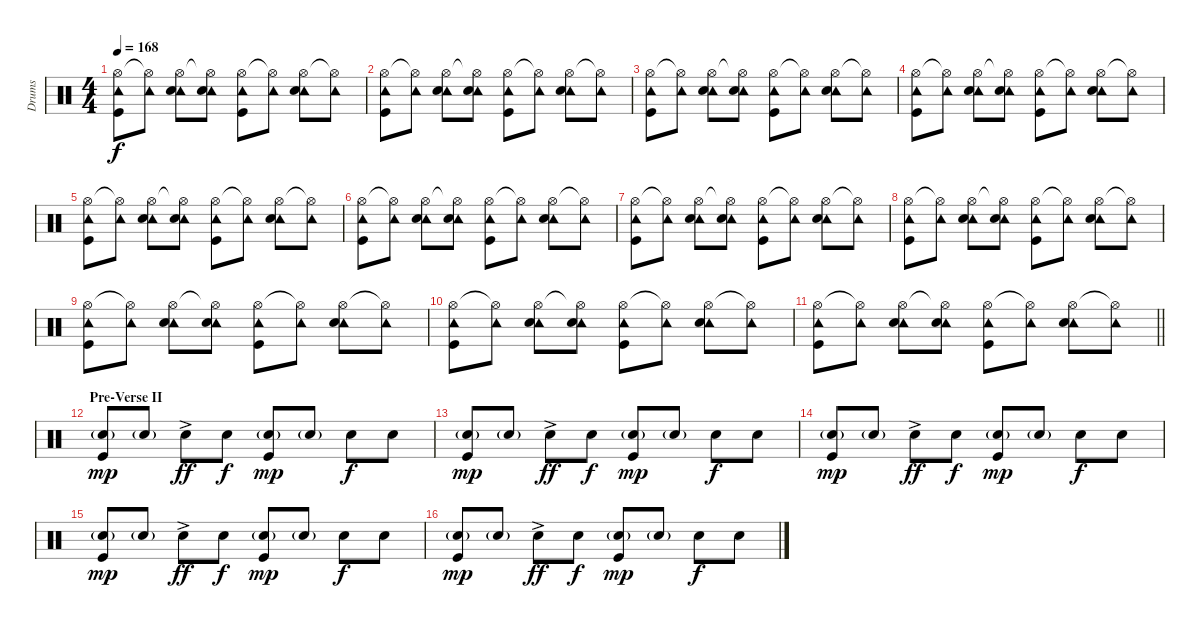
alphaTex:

\track ("Drums" "Drums") {instrument percussion}
\staff {score}
\articulation defaults
\ts (4 4)
\tempo 168
\clef neutral
\ks c
("Hi-Hat (open)" "Tambourine (hit)" "Kick (hit)").8{dy f} ("Hi-Hat (open)"{t} "Tambourine (hit)").8 ("Hi-Hat (open)" "Tambourine (hit)" "Snare (hit) 2").8 ("Hi-Hat (open)"{t} "Tambourine (hit)" "Snare (hit) 2").8 ("Hi-Hat (open)" "Tambourine (hit)" "Kick (hit)").8 ("Hi-Hat (open)"{t} "Tambourine (hit)").8 ("Hi-Hat (open)" "Tambourine (hit)" "Snare (hit) 2").8 ("Hi-Hat (open)"{t} "Tambourine (hit)").8 |
("Hi-Hat (open)" "Tambourine (hit)" "Kick (hit)").8 ("Hi-Hat (open)"{t} "Tambourine (hit)").8 ("Hi-Hat (open)" "Tambourine (hit)" "Snare (hit) 2").8 ("Hi-Hat (open)"{t} "Tambourine (hit)" "Snare (hit) 2").8 ("Hi-Hat (open)" "Tambourine (hit)" "Kick (hit)").8 ("Hi-Hat (open)"{t} "Tambourine (hit)").8 ("Hi-Hat (open)" "Tambourine (hit)" "Snare (hit) 2").8 ("Hi-Hat (open)"{t} "Tambourine (hit)").8 |
("Hi-Hat (open)" "Tambourine (hit)" "Kick (hit)").8 ("Hi-Hat (open)"{t} "Tambourine (hit)").8 ("Hi-Hat (open)" "Tambourine (hit)" "Snare (hit) 2").8 ("Hi-Hat (open)"{t} "Tambourine (hit)" "Snare (hit) 2").8 ("Hi-Hat (open)" "Tambourine (hit)" "Kick (hit)").8 ("Hi-Hat (open)"{t} "Tambourine (hit)").8 ("Hi-Hat (open)" "Tambourine (hit)" "Snare (hit) 2").8 ("Hi-Hat (open)"{t} "Tambourine (hit)").8 |
("Hi-Hat (open)" "Tambourine (hit)" "Kick (hit)").8 ("Hi-Hat (open)"{t} "Tambourine (hit)").8 ("Hi-Hat (open)" "Tambourine (hit)" "Snare (hit) 2").8 ("Hi-Hat (open)"{t} "Tambourine (hit)" "Snare (hit) 2").8 ("Hi-Hat (open)" "Tambourine (hit)" "Kick (hit)").8 ("Hi-Hat (open)"{t} "Tambourine (hit)").8 ("Hi-Hat (open)" "Tambourine (hit)" "Snare (hit) 2").8 ("Hi-Hat (open)"{t} "Tambourine (hit)").8 |
("Hi-Hat (open)" "Tambourine (hit)" "Kick (hit)").8 ("Hi-Hat (open)"{t} "Tambourine (hit)").8 ("Hi-Hat (open)" "Tambourine (hit)" "Snare (hit) 2").8 ("Hi-Hat (open)"{t} "Tambourine (hit)" "Snare (hit) 2").8 ("Hi-Hat (open)" "Tambourine (hit)" "Kick (hit)").8 ("Hi-Hat (open)"{t} "Tambourine (hit)").8 ("Hi-Hat (open)" "Tambourine (hit)" "Snare (hit) 2").8 ("Hi-Hat (open)"{t} "Tambourine (hit)").8 |
("Hi-Hat (open)" "Tambourine (hit)" "Kick (hit)").8 ("Hi-Hat (open)"{t} "Tambourine (hit)").8 ("Hi-Hat (open)" "Tambourine (hit)" "Snare (hit) 2").8 ("Hi-Hat (open)"{t} "Tambourine (hit)" "Snare (hit) 2").8 ("Hi-Hat (open)" "Tambourine (hit)" "Kick (hit)").8 ("Hi-Hat (open)"{t} "Tambourine (hit)").8 ("Hi-Hat (open)" "Tambourine (hit)" "Snare (hit) 2").8 ("Hi-Hat (open)"{t} "Tambourine (hit)").8 |
("Hi-Hat (open)" "Tambourine (hit)" "Kick (hit)").8 ("Hi-Hat (open)"{t} "Tambourine (hit)").8 ("Hi-Hat (open)" "Tambourine (hit)" "Snare (hit) 2").8 ("Hi-Hat (open)"{t} "Tambourine (hit)" "Snare (hit) 2").8 ("Hi-Hat (open)" "Tambourine (hit)" "Kick (hit)").8 ("Hi-Hat (open)"{t} "Tambourine (hit)").8 ("Hi-Hat (open)" "Tambourine (hit)" "Snare (hit) 2").8 ("Hi-Hat (open)"{t} "Tambourine (hit)").8 |
("Hi-Hat (open)" "Tambourine (hit)" "Kick (hit)").8 ("Hi-Hat (open)"{t} "Tambourine (hit)").8 ("Hi-Hat (open)" "Tambourine (hit)" "Snare (hit) 2").8 ("Hi-Hat (open)"{t} "Tambourine (hit)" "Snare (hit) 2").8 ("Hi-Hat (open)" "Tambourine (hit)" "Kick (hit)").8 ("Hi-Hat (open)"{t} "Tambourine (hit)").8 ("Hi-Hat (open)" "Tambourine (hit)" "Snare (hit) 2").8 ("Hi-Hat (open)"{t} "Tambourine (hit)").8 |
("Hi-Hat (open)" "Tambourine (hit)" "Kick (hit)").8 ("Hi-Hat (open)"{t} "Tambourine (hit)").8 ("Hi-Hat (open)" "Tambourine (hit)" "Snare (hit) 2").8 ("Hi-Hat (open)"{t} "Tambourine (hit)" "Snare (hit) 2").8 ("Hi-Hat (open)" "Tambourine (hit)" "Kick (hit)").8 ("Hi-Hat (open)"{t} "Tambourine (hit)").8 ("Hi-Hat (open)" "Tambourine (hit)" "Snare (hit) 2").8 ("Hi-Hat (open)"{t} "Tambourine (hit)").8 |
("Hi-Hat (open)" "Tambourine (hit)" "Kick (hit)").8 ("Hi-Hat (open)"{t} "Tambourine (hit)").8 ("Hi-Hat (open)" "Tambourine (hit)" "Snare (hit) 2").8 ("Hi-Hat (open)"{t} "Tambourine (hit)" "Snare (hit) 2").8 ("Hi-Hat (open)" "Tambourine (hit)" "Kick (hit)").8 ("Hi-Hat (open)"{t} "Tambourine (hit)").8 ("Hi-Hat (open)" "Tambourine (hit)" "Snare (hit) 2").8 ("Hi-Hat (open)"{t} "Tambourine (hit)").8 |
\barLineRight lightlight
("Hi-Hat (open)" "Tambourine (hit)" "Kick (hit)").8 ("Hi-Hat (open)"{t} "Tambourine (hit)").8 ("Hi-Hat (open)" "Tambourine (hit)" "Snare (hit) 2").8 ("Hi-Hat (open)"{t} "Tambourine (hit)" "Snare (hit) 2").8 ("Hi-Hat (open)" "Tambourine (hit)" "Kick (hit)").8 ("Hi-Hat (open)"{t} "Tambourine (hit)").8 ("Hi-Hat (open)" "Tambourine (hit)" "Snare (hit) 2").8 ("Hi-Hat (open)"{t} "Tambourine (hit)").8 |
\section ("" "Pre-Verse II")
("Snare (hit) 2"{g} "Kick (hit)").8{dy mp} "Snare (hit) 2"{g}.8 "Snare (hit) 2"{ac}.8{dy ff} "Snare (hit) 2".8{dy f} ("Snare (hit) 2"{g} "Kick (hit)").8{dy mp} "Snare (hit) 2"{g}.8 "Snare (hit) 2".8{dy f} "Snare (hit) 2".8 |
("Snare (hit) 2"{g} "Kick (hit)").8{dy mp} "Snare (hit) 2"{g}.8 "Snare (hit) 2"{ac}.8{dy ff} "Snare (hit) 2".8{dy f} ("Snare (hit) 2"{g} "Kick (hit)").8{dy mp} "Snare (hit) 2"{g}.8 "Snare (hit) 2".8{dy f} "Snare (hit) 2".8 |
("Snare (hit) 2"{g} "Kick (hit)").8{dy mp} "Snare (hit) 2"{g}.8 "Snare (hit) 2"{ac}.8{dy ff} "Snare (hit) 2".8{dy f} ("Snare (hit) 2"{g} "Kick (hit)").8{dy mp} "Snare (hit) 2"{g}.8 "Snare (hit) 2".8{dy f} "Snare (hit) 2".8 |
("Snare (hit) 2"{g} "Kick (hit)").8{dy mp} "Snare (hit) 2"{g}.8 "Snare (hit) 2"{ac}.8{dy ff} "Snare (hit) 2".8{dy f} ("Snare (hit) 2"{g} "Kick (hit)").8{dy mp} "Snare (hit) 2"{g}.8 "Snare (hit) 2".8{dy f} "Snare (hit) 2".8 |
("Snare (hit) 2"{g} "Kick (hit)").8{dy mp} "Snare (hit) 2"{g}.8 "Snare (hit) 2"{ac}.8{dy ff} "Snare (hit) 2".8{dy f} ("Snare (hit) 2"{g} "Kick (hit)").8{dy mp} "Snare (hit) 2"{g}.8 "Snare (hit) 2".8{dy f} "Snare (hit) 2".8
